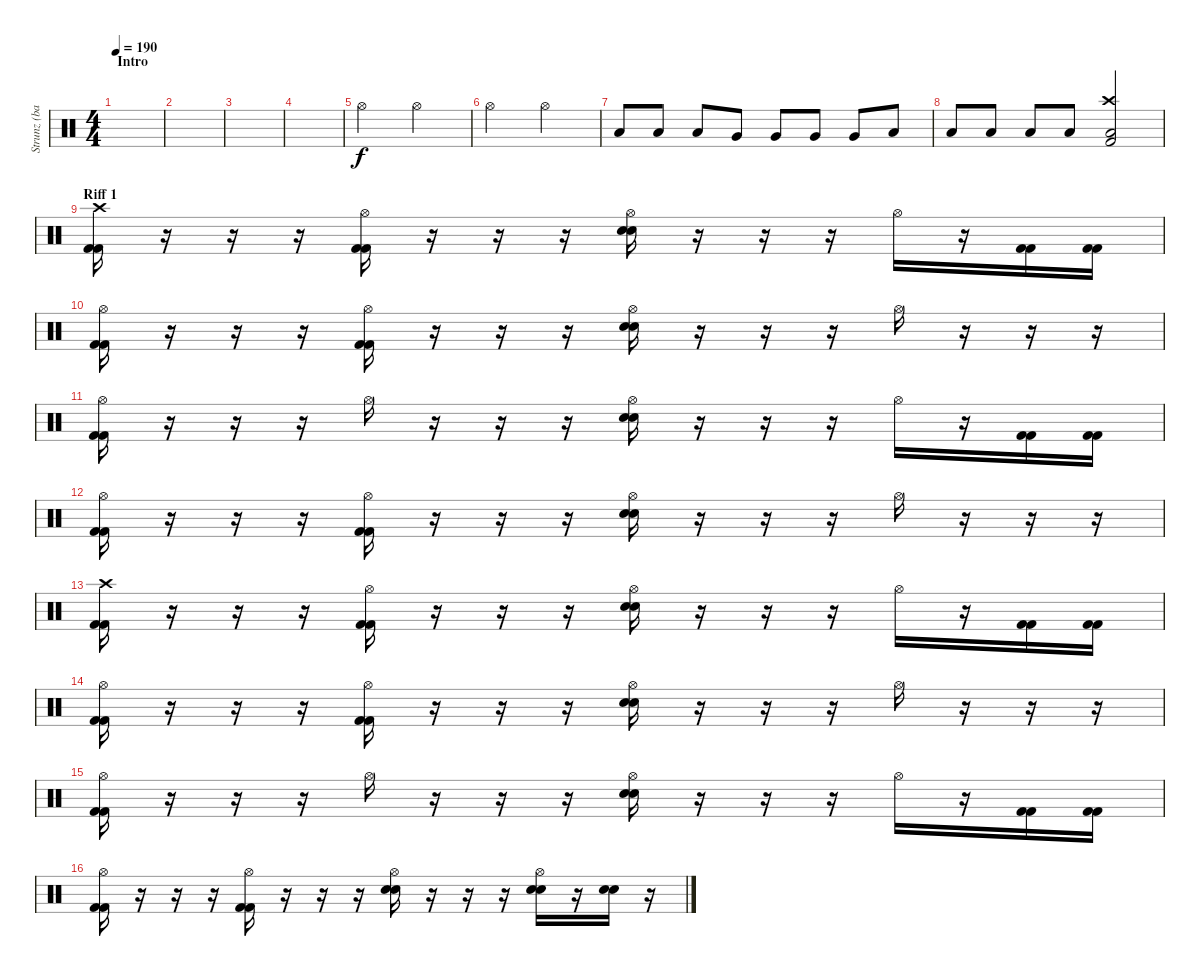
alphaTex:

\track ("Strunz (bateria)" "Strunz (ba") {instrument percussion}
\staff {score}
\articulation defaults
\ts (4 4)
\section ("" "Intro")
\tempo 190
\clef neutral
\ks c
|
|
|
|
"Hi-Hat (open)".2 "Hi-Hat (open)".2 |
"Hi-Hat (open)".2 "Hi-Hat (open)".2 |
"Low Tom (hit)".8 "Low Tom (hit)".8 "Low Tom (hit)".8 "Very Low Tom (hit)".8 "Very Low Tom (hit)".8 "Very Low Tom (hit)".8 "Very Low Tom (hit)".8 "Low Floor Tom (hit)".8 |
"Low Floor Tom (hit)".8 "Low Floor Tom (hit)".8 "Low Floor Tom (hit)".8 "Low Floor Tom (hit)".8 ("Crash high (hit)" "Low Floor Tom (hit)" "Kick (hit) 2").2 |
\section ("" "Riff 1")
("Crash high (hit)" "Kick (hit) 2" "Kick (hit) 2").16 r.16 r.16 r.16 ("Hi-Hat (open)" "Kick (hit) 2" "Kick (hit) 2").16 r.16 r.16 r.16 ("Hi-Hat (open)" "Snare (hit) 2" "Snare (hit) 2").16 r.16 r.16 r.16 "Hi-Hat (open)".16 r.16 ("Kick (hit) 2" "Kick (hit) 2").16 ("Kick (hit) 2" "Kick (hit) 2").16 |
("Hi-Hat (open)" "Kick (hit) 2" "Kick (hit) 2").16 r.16 r.16 r.16 ("Hi-Hat (open)" "Kick (hit) 2" "Kick (hit) 2").16 r.16 r.16 r.16 ("Hi-Hat (open)" "Snare (hit) 2" "Snare (hit) 2").16 r.16 r.16 r.16 "Hi-Hat (open)".16 r.16 r.16 r.16 |
("Hi-Hat (open)" "Kick (hit) 2" "Kick (hit) 2").16 r.16 r.16 r.16 "Hi-Hat (open)".16 r.16 r.16 r.16 ("Hi-Hat (open)" "Snare (hit) 2" "Snare (hit) 2").16 r.16 r.16 r.16 "Hi-Hat (open)".16 r.16 ("Kick (hit) 2" "Kick (hit) 2").16 ("Kick (hit) 2" "Kick (hit) 2").16 |
("Hi-Hat (open)" "Kick (hit) 2" "Kick (hit) 2").16 r.16 r.16 r.16 ("Hi-Hat (open)" "Kick (hit) 2" "Kick (hit) 2").16 r.16 r.16 r.16 ("Hi-Hat (open)" "Snare (hit) 2" "Snare (hit) 2").16 r.16 r.16 r.16 "Hi-Hat (open)".16 r.16 r.16 r.16 |
("Crash high (hit)" "Kick (hit) 2" "Kick (hit) 2").16 r.16 r.16 r.16 ("Hi-Hat (open)" "Kick (hit) 2" "Kick (hit) 2").16 r.16 r.16 r.16 ("Hi-Hat (open)" "Snare (hit) 2" "Snare (hit) 2").16 r.16 r.16 r.16 "Hi-Hat (open)".16 r.16 ("Kick (hit) 2" "Kick (hit) 2").16 ("Kick (hit) 2" "Kick (hit) 2").16 |
("Hi-Hat (open)" "Kick (hit) 2" "Kick (hit) 2").16 r.16 r.16 r.16 ("Hi-Hat (open)" "Kick (hit) 2" "Kick (hit) 2").16 r.16 r.16 r.16 ("Hi-Hat (open)" "Snare (hit) 2" "Snare (hit) 2").16 r.16 r.16 r.16 "Hi-Hat (open)".16 r.16 r.16 r.16 |
("Hi-Hat (open)" "Kick (hit) 2" "Kick (hit) 2").16 r.16 r.16 r.16 "Hi-Hat (open)".16 r.16 r.16 r.16 ("Hi-Hat (open)" "Snare (hit) 2" "Snare (hit) 2").16 r.16 r.16 r.16 "Hi-Hat (open)".16 r.16 ("Kick (hit) 2" "Kick (hit) 2").16 ("Kick (hit) 2" "Kick (hit) 2").16 |
("Hi-Hat (open)" "Kick (hit) 2" "Kick (hit) 2").16 r.16 r.16 r.16 ("Hi-Hat (open)" "Kick (hit) 2" "Kick (hit) 2").16 r.16 r.16 r.16 ("Hi-Hat (open)" "Snare (hit) 2" "Snare (hit) 2").16 r.16 r.16 r.16 ("Hi-Hat (open)" "Snare (hit) 2" "Snare (hit) 2").16 r.16 ("Snare (hit) 2" "Snare (hit) 2").16 r.16
